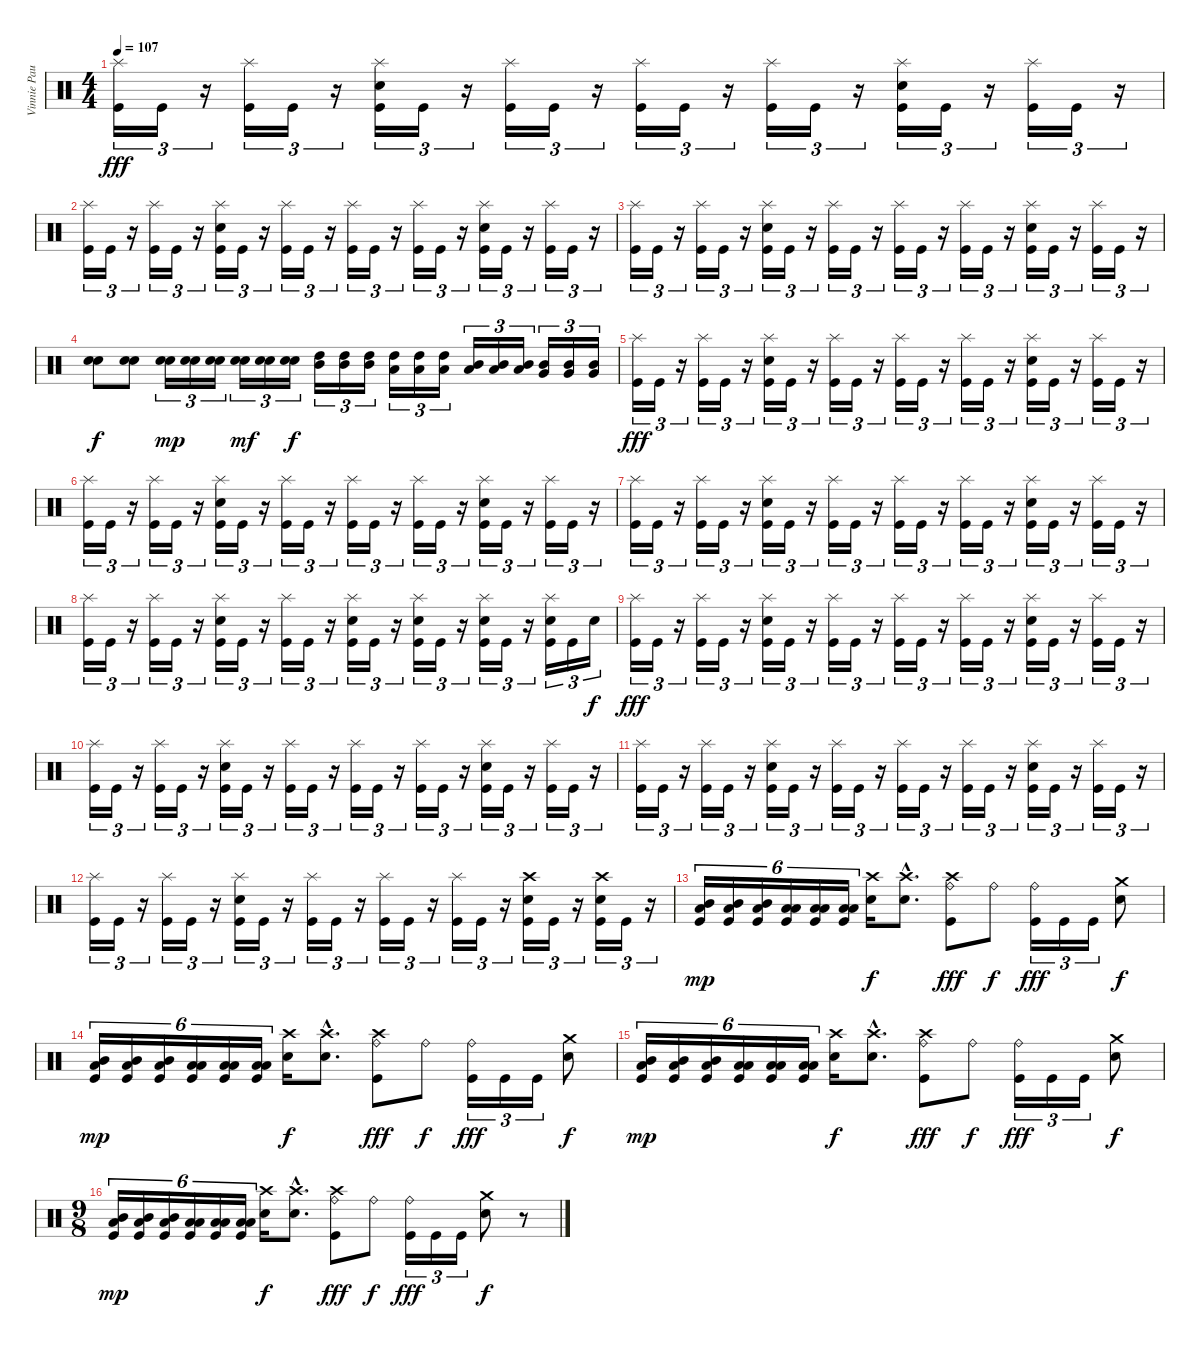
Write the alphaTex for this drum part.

\track ("Vinnie Paul" "Vinnie Pau") {instrument percussion}
\staff {score}
\articulation defaults
\ts (4 4)
\tempo 107
\clef neutral
\ks c
("Splash (hit)" "Kick (hit)").16{tu (3 2) dy fff} "Kick (hit)".16{tu (3 2)} r.16{tu (3 2)} ("Splash (hit)" "Kick (hit)").16{tu (3 2)} "Kick (hit)".16{tu (3 2)} r.16{tu (3 2)} ("Splash (hit)" "Kick (hit)" "Electric Snare (hit)").16{tu (3 2)} "Kick (hit)".16{tu (3 2)} r.16{tu (3 2)} ("Splash (hit)" "Kick (hit)").16{tu (3 2)} "Kick (hit)".16{tu (3 2)} r.16{tu (3 2)} ("Splash (hit)" "Kick (hit)").16{tu (3 2)} "Kick (hit)".16{tu (3 2)} r.16{tu (3 2)} ("Splash (hit)" "Kick (hit)").16{tu (3 2)} "Kick (hit)".16{tu (3 2)} r.16{tu (3 2)} ("Splash (hit)" "Kick (hit)" "Electric Snare (hit)").16{tu (3 2)} "Kick (hit)".16{tu (3 2)} r.16{tu (3 2)} ("Splash (hit)" "Kick (hit)").16{tu (3 2)} "Kick (hit)".16{tu (3 2)} r.16{tu (3 2)} |
("Splash (hit)" "Kick (hit)").16{tu (3 2)} "Kick (hit)".16{tu (3 2)} r.16{tu (3 2)} ("Splash (hit)" "Kick (hit)").16{tu (3 2)} "Kick (hit)".16{tu (3 2)} r.16{tu (3 2)} ("Splash (hit)" "Kick (hit)" "Electric Snare (hit)").16{tu (3 2)} "Kick (hit)".16{tu (3 2)} r.16{tu (3 2)} ("Splash (hit)" "Kick (hit)").16{tu (3 2)} "Kick (hit)".16{tu (3 2)} r.16{tu (3 2)} ("Splash (hit)" "Kick (hit)").16{tu (3 2)} "Kick (hit)".16{tu (3 2)} r.16{tu (3 2)} ("Splash (hit)" "Kick (hit)").16{tu (3 2)} "Kick (hit)".16{tu (3 2)} r.16{tu (3 2)} ("Splash (hit)" "Kick (hit)" "Electric Snare (hit)").16{tu (3 2)} "Kick (hit)".16{tu (3 2)} r.16{tu (3 2)} ("Splash (hit)" "Kick (hit)").16{tu (3 2)} "Kick (hit)".16{tu (3 2)} r.16{tu (3 2)} |
("Splash (hit)" "Kick (hit)").16{tu (3 2)} "Kick (hit)".16{tu (3 2)} r.16{tu (3 2)} ("Splash (hit)" "Kick (hit)").16{tu (3 2)} "Kick (hit)".16{tu (3 2)} r.16{tu (3 2)} ("Splash (hit)" "Kick (hit)" "Electric Snare (hit)").16{tu (3 2)} "Kick (hit)".16{tu (3 2)} r.16{tu (3 2)} ("Splash (hit)" "Kick (hit)").16{tu (3 2)} "Kick (hit)".16{tu (3 2)} r.16{tu (3 2)} ("Splash (hit)" "Kick (hit)").16{tu (3 2)} "Kick (hit)".16{tu (3 2)} r.16{tu (3 2)} ("Splash (hit)" "Kick (hit)").16{tu (3 2)} "Kick (hit)".16{tu (3 2)} r.16{tu (3 2)} ("Splash (hit)" "Kick (hit)" "Electric Snare (hit)").16{tu (3 2)} "Kick (hit)".16{tu (3 2)} r.16{tu (3 2)} ("Splash (hit)" "Kick (hit)").16{tu (3 2)} "Kick (hit)".16{tu (3 2)} r.16{tu (3 2)} |
("Electric Snare (hit)" "Electric Snare (hit)").8{dy f} ("Electric Snare (hit)" "Electric Snare (hit)").8 ("Electric Snare (hit)" "Electric Snare (hit)").16{tu (3 2) dy mp} ("Electric Snare (hit)" "Electric Snare (hit)").16{tu (3 2)} ("Electric Snare (hit)" "Electric Snare (hit)").16{tu (3 2)} ("Electric Snare (hit)" "Electric Snare (hit)").16{tu (3 2) dy mf} ("Electric Snare (hit)" "Electric Snare (hit)").16{tu (3 2)} ("Electric Snare (hit)" "Electric Snare (hit)").16{tu (3 2) dy f} ("High Tom (hit)" "Mid Tom (hit)").16{tu (3 2)} ("High Tom (hit)" "Mid Tom (hit)").16{tu (3 2)} ("High Tom (hit)" "Mid Tom (hit)").16{tu (3 2)} ("High Tom (hit)" "Low Tom (hit)").16{tu (3 2)} ("High Tom (hit)" "Low Tom (hit)").16{tu (3 2)} ("High Tom (hit)" "Low Tom (hit)").16{tu (3 2)} ("Mid Tom (hit)" "Low Tom (hit)").16{tu (3 2)} ("Mid Tom (hit)" "Low Tom (hit)").16{tu (3 2)} ("Mid Tom (hit)" "Low Tom (hit)").16{tu (3 2)} ("Mid Tom (hit)" "Very Low Tom (hit)").16{tu (3 2)} ("Mid Tom (hit)" "Very Low Tom (hit)").16{tu (3 2)} ("Mid Tom (hit)" "Very Low Tom (hit)").16{tu (3 2)} |
("Splash (hit)" "Kick (hit)").16{tu (3 2) dy fff} "Kick (hit)".16{tu (3 2)} r.16{tu (3 2)} ("Splash (hit)" "Kick (hit)").16{tu (3 2)} "Kick (hit)".16{tu (3 2)} r.16{tu (3 2)} ("Splash (hit)" "Kick (hit)" "Electric Snare (hit)").16{tu (3 2)} "Kick (hit)".16{tu (3 2)} r.16{tu (3 2)} ("Splash (hit)" "Kick (hit)").16{tu (3 2)} "Kick (hit)".16{tu (3 2)} r.16{tu (3 2)} ("Splash (hit)" "Kick (hit)").16{tu (3 2)} "Kick (hit)".16{tu (3 2)} r.16{tu (3 2)} ("Splash (hit)" "Kick (hit)").16{tu (3 2)} "Kick (hit)".16{tu (3 2)} r.16{tu (3 2)} ("Splash (hit)" "Kick (hit)" "Electric Snare (hit)").16{tu (3 2)} "Kick (hit)".16{tu (3 2)} r.16{tu (3 2)} ("Splash (hit)" "Kick (hit)").16{tu (3 2)} "Kick (hit)".16{tu (3 2)} r.16{tu (3 2)} |
("Splash (hit)" "Kick (hit)").16{tu (3 2)} "Kick (hit)".16{tu (3 2)} r.16{tu (3 2)} ("Splash (hit)" "Kick (hit)").16{tu (3 2)} "Kick (hit)".16{tu (3 2)} r.16{tu (3 2)} ("Splash (hit)" "Kick (hit)" "Electric Snare (hit)").16{tu (3 2)} "Kick (hit)".16{tu (3 2)} r.16{tu (3 2)} ("Splash (hit)" "Kick (hit)").16{tu (3 2)} "Kick (hit)".16{tu (3 2)} r.16{tu (3 2)} ("Splash (hit)" "Kick (hit)").16{tu (3 2)} "Kick (hit)".16{tu (3 2)} r.16{tu (3 2)} ("Splash (hit)" "Kick (hit)").16{tu (3 2)} "Kick (hit)".16{tu (3 2)} r.16{tu (3 2)} ("Splash (hit)" "Kick (hit)" "Electric Snare (hit)").16{tu (3 2)} "Kick (hit)".16{tu (3 2)} r.16{tu (3 2)} ("Splash (hit)" "Kick (hit)").16{tu (3 2)} "Kick (hit)".16{tu (3 2)} r.16{tu (3 2)} |
("Splash (hit)" "Kick (hit)").16{tu (3 2)} "Kick (hit)".16{tu (3 2)} r.16{tu (3 2)} ("Splash (hit)" "Kick (hit)").16{tu (3 2)} "Kick (hit)".16{tu (3 2)} r.16{tu (3 2)} ("Splash (hit)" "Kick (hit)" "Electric Snare (hit)").16{tu (3 2)} "Kick (hit)".16{tu (3 2)} r.16{tu (3 2)} ("Splash (hit)" "Kick (hit)").16{tu (3 2)} "Kick (hit)".16{tu (3 2)} r.16{tu (3 2)} ("Splash (hit)" "Kick (hit)").16{tu (3 2)} "Kick (hit)".16{tu (3 2)} r.16{tu (3 2)} ("Splash (hit)" "Kick (hit)").16{tu (3 2)} "Kick (hit)".16{tu (3 2)} r.16{tu (3 2)} ("Splash (hit)" "Kick (hit)" "Electric Snare (hit)").16{tu (3 2)} "Kick (hit)".16{tu (3 2)} r.16{tu (3 2)} ("Splash (hit)" "Kick (hit)").16{tu (3 2)} "Kick (hit)".16{tu (3 2)} r.16{tu (3 2)} |
("Splash (hit)" "Kick (hit)").16{tu (3 2)} "Kick (hit)".16{tu (3 2)} r.16{tu (3 2)} ("Splash (hit)" "Kick (hit)").16{tu (3 2)} "Kick (hit)".16{tu (3 2)} r.16{tu (3 2)} ("Splash (hit)" "Kick (hit)" "Electric Snare (hit)").16{tu (3 2)} "Kick (hit)".16{tu (3 2)} r.16{tu (3 2)} ("Splash (hit)" "Kick (hit)").16{tu (3 2)} "Kick (hit)".16{tu (3 2)} r.16{tu (3 2)} ("Splash (hit)" "Kick (hit)" "Electric Snare (hit)").16{tu (3 2)} "Kick (hit)".16{tu (3 2)} r.16{tu (3 2)} ("Splash (hit)" "Kick (hit)" "Electric Snare (hit)").16{tu (3 2)} "Kick (hit)".16{tu (3 2)} r.16{tu (3 2)} ("Splash (hit)" "Kick (hit)" "Electric Snare (hit)").16{tu (3 2)} "Kick (hit)".16{tu (3 2)} r.16{tu (3 2)} ("Splash (hit)" "Kick (hit)" "Electric Snare (hit)").16{tu (3 2)} "Kick (hit)".16{tu (3 2)} "Electric Snare (hit)".16{tu (3 2) dy f} |
("Splash (hit)" "Kick (hit)").16{tu (3 2) dy fff} "Kick (hit)".16{tu (3 2)} r.16{tu (3 2)} ("Splash (hit)" "Kick (hit)").16{tu (3 2)} "Kick (hit)".16{tu (3 2)} r.16{tu (3 2)} ("Splash (hit)" "Kick (hit)" "Electric Snare (hit)").16{tu (3 2)} "Kick (hit)".16{tu (3 2)} r.16{tu (3 2)} ("Splash (hit)" "Kick (hit)").16{tu (3 2)} "Kick (hit)".16{tu (3 2)} r.16{tu (3 2)} ("Splash (hit)" "Kick (hit)").16{tu (3 2)} "Kick (hit)".16{tu (3 2)} r.16{tu (3 2)} ("Splash (hit)" "Kick (hit)").16{tu (3 2)} "Kick (hit)".16{tu (3 2)} r.16{tu (3 2)} ("Splash (hit)" "Kick (hit)" "Electric Snare (hit)").16{tu (3 2)} "Kick (hit)".16{tu (3 2)} r.16{tu (3 2)} ("Splash (hit)" "Kick (hit)").16{tu (3 2)} "Kick (hit)".16{tu (3 2)} r.16{tu (3 2)} |
("Splash (hit)" "Kick (hit)").16{tu (3 2)} "Kick (hit)".16{tu (3 2)} r.16{tu (3 2)} ("Splash (hit)" "Kick (hit)").16{tu (3 2)} "Kick (hit)".16{tu (3 2)} r.16{tu (3 2)} ("Splash (hit)" "Kick (hit)" "Electric Snare (hit)").16{tu (3 2)} "Kick (hit)".16{tu (3 2)} r.16{tu (3 2)} ("Splash (hit)" "Kick (hit)").16{tu (3 2)} "Kick (hit)".16{tu (3 2)} r.16{tu (3 2)} ("Splash (hit)" "Kick (hit)").16{tu (3 2)} "Kick (hit)".16{tu (3 2)} r.16{tu (3 2)} ("Splash (hit)" "Kick (hit)").16{tu (3 2)} "Kick (hit)".16{tu (3 2)} r.16{tu (3 2)} ("Splash (hit)" "Kick (hit)" "Electric Snare (hit)").16{tu (3 2)} "Kick (hit)".16{tu (3 2)} r.16{tu (3 2)} ("Splash (hit)" "Kick (hit)").16{tu (3 2)} "Kick (hit)".16{tu (3 2)} r.16{tu (3 2)} |
("Splash (hit)" "Kick (hit)").16{tu (3 2)} "Kick (hit)".16{tu (3 2)} r.16{tu (3 2)} ("Splash (hit)" "Kick (hit)").16{tu (3 2)} "Kick (hit)".16{tu (3 2)} r.16{tu (3 2)} ("Splash (hit)" "Kick (hit)" "Electric Snare (hit)").16{tu (3 2)} "Kick (hit)".16{tu (3 2)} r.16{tu (3 2)} ("Splash (hit)" "Kick (hit)").16{tu (3 2)} "Kick (hit)".16{tu (3 2)} r.16{tu (3 2)} ("Splash (hit)" "Kick (hit)").16{tu (3 2)} "Kick (hit)".16{tu (3 2)} r.16{tu (3 2)} ("Splash (hit)" "Kick (hit)").16{tu (3 2)} "Kick (hit)".16{tu (3 2)} r.16{tu (3 2)} ("Splash (hit)" "Kick (hit)" "Electric Snare (hit)").16{tu (3 2)} "Kick (hit)".16{tu (3 2)} r.16{tu (3 2)} ("Splash (hit)" "Kick (hit)").16{tu (3 2)} "Kick (hit)".16{tu (3 2)} r.16{tu (3 2)} |
("Splash (hit)" "Kick (hit)").16{tu (3 2)} "Kick (hit)".16{tu (3 2)} r.16{tu (3 2)} ("Splash (hit)" "Kick (hit)").16{tu (3 2)} "Kick (hit)".16{tu (3 2)} r.16{tu (3 2)} ("Splash (hit)" "Kick (hit)" "Electric Snare (hit)").16{tu (3 2)} "Kick (hit)".16{tu (3 2)} r.16{tu (3 2)} ("Splash (hit)" "Kick (hit)").16{tu (3 2)} "Kick (hit)".16{tu (3 2)} r.16{tu (3 2)} ("Splash (hit)" "Kick (hit)").16{tu (3 2)} "Kick (hit)".16{tu (3 2)} r.16{tu (3 2)} ("Splash (hit)" "Kick (hit)").16{tu (3 2)} "Kick (hit)".16{tu (3 2)} r.16{tu (3 2)} ("Crash high (hit)" "Kick (hit)" "Electric Snare (hit)").16{tu (3 2)} "Kick (hit)".16{tu (3 2)} r.16{tu (3 2)} ("Crash high (hit)" "Kick (hit)" "Electric Snare (hit)").16{tu (3 2)} "Kick (hit)".16{tu (3 2)} r.16{tu (3 2)} |
("Kick (hit)" "Mid Tom (hit)" "Low Tom (hit)").16{tu (6 4) dy mp} ("Kick (hit)" "Mid Tom (hit)" "Low Tom (hit)").16{tu (6 4)} ("Kick (hit)" "Mid Tom (hit)" "Low Tom (hit)").16{tu (6 4)} ("Kick (hit)" "Low Tom (hit)" "Low Tom (hit)").16{tu (6 4)} ("Kick (hit)" "Low Tom (hit)" "Low Tom (hit)").16{tu (6 4)} ("Kick (hit)" "Low Tom (hit)" "Low Tom (hit)").16{tu (6 4)} ("Crash high (hit)" "Electric Snare (hit)").16{dy f} ("Crash high (hit)"{hac} "Electric Snare (hit)"{hac}).8{d} ("Crash high (hit)" "Ride (bell)" "Kick (hit)").8{dy fff} "Ride (bell)".8{dy f} ("Ride (bell)" "Kick (hit)").16{tu (3 2) dy fff} "Kick (hit)".16{tu (3 2)} "Kick (hit)".16{tu (3 2)} ("Crash medium (hit)" "Electric Snare (hit)").8{dy f} |
("Kick (hit)" "Mid Tom (hit)" "Low Tom (hit)").16{tu (6 4) dy mp} ("Kick (hit)" "Mid Tom (hit)" "Low Tom (hit)").16{tu (6 4)} ("Kick (hit)" "Mid Tom (hit)" "Low Tom (hit)").16{tu (6 4)} ("Kick (hit)" "Low Tom (hit)" "Low Tom (hit)").16{tu (6 4)} ("Kick (hit)" "Low Tom (hit)" "Low Tom (hit)").16{tu (6 4)} ("Kick (hit)" "Low Tom (hit)" "Low Tom (hit)").16{tu (6 4)} ("Crash high (hit)" "Electric Snare (hit)").16{dy f} ("Crash high (hit)"{hac} "Electric Snare (hit)"{hac}).8{d} ("Crash high (hit)" "Ride (bell)" "Kick (hit)").8{dy fff} "Ride (bell)".8{dy f} ("Ride (bell)" "Kick (hit)").16{tu (3 2) dy fff} "Kick (hit)".16{tu (3 2)} "Kick (hit)".16{tu (3 2)} ("Crash medium (hit)" "Electric Snare (hit)").8{dy f} |
("Kick (hit)" "Mid Tom (hit)" "Low Tom (hit)").16{tu (6 4) dy mp} ("Kick (hit)" "Mid Tom (hit)" "Low Tom (hit)").16{tu (6 4)} ("Kick (hit)" "Mid Tom (hit)" "Low Tom (hit)").16{tu (6 4)} ("Kick (hit)" "Low Tom (hit)" "Low Tom (hit)").16{tu (6 4)} ("Kick (hit)" "Low Tom (hit)" "Low Tom (hit)").16{tu (6 4)} ("Kick (hit)" "Low Tom (hit)" "Low Tom (hit)").16{tu (6 4)} ("Crash high (hit)" "Electric Snare (hit)").16{dy f} ("Crash high (hit)"{hac} "Electric Snare (hit)"{hac}).8{d} ("Crash high (hit)" "Ride (bell)" "Kick (hit)").8{dy fff} "Ride (bell)".8{dy f} ("Ride (bell)" "Kick (hit)").16{tu (3 2) dy fff} "Kick (hit)".16{tu (3 2)} "Kick (hit)".16{tu (3 2)} ("Crash medium (hit)" "Electric Snare (hit)").8{dy f} |
\ts (9 8)
("Kick (hit)" "Mid Tom (hit)" "Low Tom (hit)").16{tu (6 4) dy mp} ("Kick (hit)" "Mid Tom (hit)" "Low Tom (hit)").16{tu (6 4)} ("Kick (hit)" "Mid Tom (hit)" "Low Tom (hit)").16{tu (6 4)} ("Kick (hit)" "Low Tom (hit)" "Low Tom (hit)").16{tu (6 4)} ("Kick (hit)" "Low Tom (hit)" "Low Tom (hit)").16{tu (6 4)} ("Kick (hit)" "Low Tom (hit)" "Low Tom (hit)").16{tu (6 4)} ("Crash high (hit)" "Electric Snare (hit)").16{dy f} ("Crash high (hit)"{hac} "Electric Snare (hit)"{hac}).8{d} ("Crash high (hit)" "Ride (bell)" "Kick (hit)").8{dy fff} "Ride (bell)".8{dy f} ("Ride (bell)" "Kick (hit)").16{tu (3 2) dy fff} "Kick (hit)".16{tu (3 2)} "Kick (hit)".16{tu (3 2)} ("Crash medium (hit)" "Electric Snare (hit)").8{dy f} r.8
